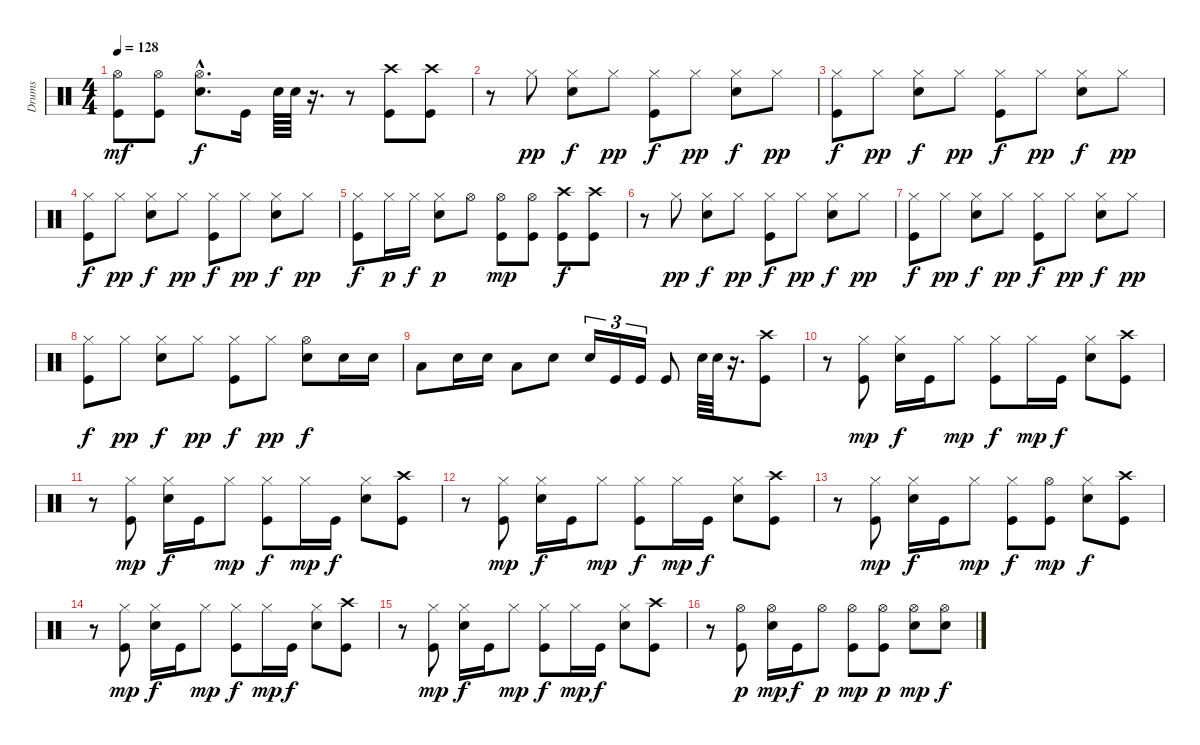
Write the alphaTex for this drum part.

\track ("Drums" "Drums") {instrument percussion}
\staff {score}
\articulation defaults
\ts (4 4)
\tempo 128
\clef neutral
\ks c
("Hi-Hat (open)" "Kick (hit)").8{dy mf} ("Hi-Hat (open)" "Kick (hit)").8 ("Hi-Hat (open)"{hac} "Snare (hit) 2"{hac}).8{d dy f} "Kick (hit)".16 "Snare (hit) 2".64 "Snare (hit) 2".64 r.16{d} r.8 ("Crash high (hit)" "Kick (hit)").8 ("Crash high (hit)" "Kick (hit)").8 |
r.8 "Hi-Hat (closed)".8{dy pp} ("Hi-Hat (closed)" "Snare (hit) 2").8{dy f} "Hi-Hat (closed)".8{dy pp} ("Hi-Hat (closed)" "Kick (hit)").8{dy f} "Hi-Hat (closed)".8{dy pp} ("Hi-Hat (closed)" "Snare (hit) 2").8{dy f} "Hi-Hat (closed)".8{dy pp} |
("Hi-Hat (closed)" "Kick (hit)").8{dy f} "Hi-Hat (closed)".8{dy pp} ("Hi-Hat (closed)" "Snare (hit) 2").8{dy f} "Hi-Hat (closed)".8{dy pp} ("Hi-Hat (closed)" "Kick (hit)").8{dy f} "Hi-Hat (closed)".8{dy pp} ("Hi-Hat (closed)" "Snare (hit) 2").8{dy f} "Hi-Hat (closed)".8{dy pp} |
("Hi-Hat (closed)" "Kick (hit)").8{dy f} "Hi-Hat (closed)".8{dy pp} ("Hi-Hat (closed)" "Snare (hit) 2").8{dy f} "Hi-Hat (closed)".8{dy pp} ("Hi-Hat (closed)" "Kick (hit)").8{dy f} "Hi-Hat (closed)".8{dy pp} ("Hi-Hat (closed)" "Snare (hit) 2").8{dy f} "Hi-Hat (closed)".8{dy pp} |
("Hi-Hat (closed)" "Kick (hit)").8{dy f} "Hi-Hat (closed)".16{dy p} "Hi-Hat (closed)".16{dy f} ("Hi-Hat (closed)" "Snare (hit) 2").8{dy p} "Hi-Hat (open)".8 ("Hi-Hat (open)" "Kick (hit)").8{dy mp} ("Hi-Hat (open)" "Kick (hit)").8 ("Crash high (hit)" "Kick (hit)").8{dy f} ("Crash high (hit)" "Kick (hit)").8 |
r.8 "Hi-Hat (closed)".8{dy pp} ("Hi-Hat (closed)" "Snare (hit) 2").8{dy f} "Hi-Hat (closed)".8{dy pp} ("Hi-Hat (closed)" "Kick (hit)").8{dy f} "Hi-Hat (closed)".8{dy pp} ("Hi-Hat (closed)" "Snare (hit) 2").8{dy f} "Hi-Hat (closed)".8{dy pp} |
("Hi-Hat (closed)" "Kick (hit)").8{dy f} "Hi-Hat (closed)".8{dy pp} ("Hi-Hat (closed)" "Snare (hit) 2").8{dy f} "Hi-Hat (closed)".8{dy pp} ("Hi-Hat (closed)" "Kick (hit)").8{dy f} "Hi-Hat (closed)".8{dy pp} ("Hi-Hat (closed)" "Snare (hit) 2").8{dy f} "Hi-Hat (closed)".8{dy pp} |
("Hi-Hat (closed)" "Kick (hit)").8{dy f} "Hi-Hat (closed)".8{dy pp} ("Hi-Hat (closed)" "Snare (hit) 2").8{dy f} "Hi-Hat (closed)".8{dy pp} ("Hi-Hat (closed)" "Kick (hit)").8{dy f} "Hi-Hat (closed)".8{dy pp} ("Hi-Hat (open)" "Snare (hit) 2").8{dy f} "Snare (hit) 2".16 "Snare (hit) 2".16 |
"Low Tom (hit)".8 "Snare (hit) 2".16 "Snare (hit) 2".16 "Low Tom (hit)".8 "Snare (hit) 2".8 "Snare (hit) 2".16{tu (3 2)} "Kick (hit)".16{tu (3 2)} "Kick (hit)".16{tu (3 2)} "Kick (hit)".8 "Snare (hit) 2".64 "Snare (hit) 2".64 r.16{d} ("Crash high (hit)" "Kick (hit)").8 |
r.8 ("Hi-Hat (closed)" "Kick (hit)").8{dy mp} ("Hi-Hat (closed)" "Snare (hit) 2").16{dy f} "Kick (hit)".16 "Hi-Hat (closed)".8{dy mp} ("Hi-Hat (closed)" "Kick (hit)").8{dy f} "Hi-Hat (closed)".16{dy mp} "Kick (hit)".16{dy f} ("Hi-Hat (closed)" "Snare (hit) 2").8 ("Crash high (hit)" "Kick (hit)").8 |
r.8 ("Hi-Hat (closed)" "Kick (hit)").8{dy mp} ("Hi-Hat (closed)" "Snare (hit) 2").16{dy f} "Kick (hit)".16 "Hi-Hat (closed)".8{dy mp} ("Hi-Hat (closed)" "Kick (hit)").8{dy f} "Hi-Hat (closed)".16{dy mp} "Kick (hit)".16{dy f} ("Hi-Hat (closed)" "Snare (hit) 2").8 ("Crash high (hit)" "Kick (hit)").8 |
r.8 ("Hi-Hat (closed)" "Kick (hit)").8{dy mp} ("Hi-Hat (closed)" "Snare (hit) 2").16{dy f} "Kick (hit)".16 "Hi-Hat (closed)".8{dy mp} ("Hi-Hat (closed)" "Kick (hit)").8{dy f} "Hi-Hat (closed)".16{dy mp} "Kick (hit)".16{dy f} ("Hi-Hat (closed)" "Snare (hit) 2").8 ("Crash high (hit)" "Kick (hit)").8 |
r.8 ("Hi-Hat (closed)" "Kick (hit)").8{dy mp} ("Hi-Hat (closed)" "Snare (hit) 2").16{dy f} "Kick (hit)".16 "Hi-Hat (closed)".8{dy mp} ("Hi-Hat (closed)" "Kick (hit)").8{dy f} ("Hi-Hat (open)" "Kick (hit)").8{dy mp} ("Hi-Hat (closed)" "Snare (hit) 2").8{dy f} ("Crash high (hit)" "Kick (hit)").8 |
r.8 ("Hi-Hat (closed)" "Kick (hit)").8{dy mp} ("Hi-Hat (closed)" "Snare (hit) 2").16{dy f} "Kick (hit)".16 "Hi-Hat (closed)".8{dy mp} ("Hi-Hat (closed)" "Kick (hit)").8{dy f} "Hi-Hat (closed)".16{dy mp} "Kick (hit)".16{dy f} ("Hi-Hat (closed)" "Snare (hit) 2").8 ("Crash high (hit)" "Kick (hit)").8 |
r.8 ("Hi-Hat (closed)" "Kick (hit)").8{dy mp} ("Hi-Hat (closed)" "Snare (hit) 2").16{dy f} "Kick (hit)".16 "Hi-Hat (closed)".8{dy mp} ("Hi-Hat (closed)" "Kick (hit)").8{dy f} "Hi-Hat (closed)".16{dy mp} "Kick (hit)".16{dy f} ("Hi-Hat (closed)" "Snare (hit) 2").8 ("Crash high (hit)" "Kick (hit)").8 |
r.8 ("Hi-Hat (open)" "Kick (hit)").8{dy p} ("Hi-Hat (open)" "Snare (hit) 2").16{dy mp} "Kick (hit)".16{dy f} "Hi-Hat (open)".8{dy p} ("Hi-Hat (open)" "Kick (hit)").8{dy mp} ("Hi-Hat (open)" "Kick (hit)").8{dy p} ("Hi-Hat (open)" "Snare (hit) 2").8{dy mp} ("Hi-Hat (open)" "Snare (hit) 2").8{dy f}
